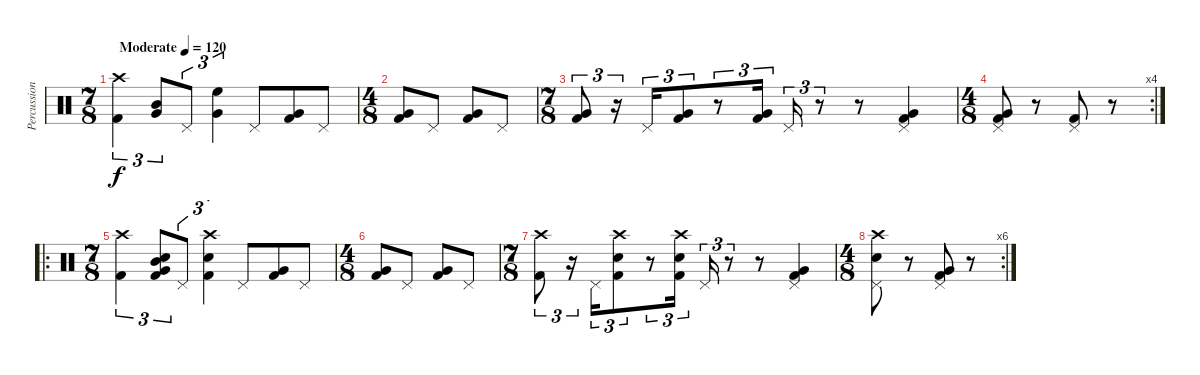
\track ("Percussion" "Percussion") {instrument percussion}
\staff {score}
\articulation defaults
\ts (7 8)
\tempo (120 "Moderate")
\clef neutral
\ks c
("Crash high (hit)" "Kick (hit) 2").4{tu (3 2) dy f} ("Mid Tom (hit)" "Very Low Tom (hit)").8{tu (3 2) beam merge} "Pedal Hi-Hat (hit)".8{tu (3 2)} ("High Floor Tom (hit)" "Very Low Tom (hit)").4{tu (3 2)} "Pedal Hi-Hat (hit)".8 ("Very Low Tom (hit)" "Kick (hit) 2").8 "Pedal Hi-Hat (hit)".8 |
\ts (4 8)
("Very Low Tom (hit)" "Kick (hit) 2").8 "Pedal Hi-Hat (hit)".8 ("Very Low Tom (hit)" "Kick (hit) 2").8 "Pedal Hi-Hat (hit)".8 |
\ts (7 8)
("Very Low Tom (hit)" "Kick (hit) 2").8{tu (3 2)} r.16{tu (3 2)} "Pedal Hi-Hat (hit)".16{tu (3 2)} ("Very Low Tom (hit)" "Kick (hit) 2").8{tu (3 2) beam merge} r.8{tu (3 2)} ("Very Low Tom (hit)" "Kick (hit) 2").16{tu (3 2)} "Pedal Hi-Hat (hit)".16{tu (3 2)} r.8{tu (3 2)} r.8 ("Very Low Tom (hit)" "Pedal Hi-Hat (hit)" "Kick (hit) 2").4 |
\rc 4
\ts (4 8)
("Very Low Tom (hit)" "Pedal Hi-Hat (hit)" "Kick (hit) 2").8 r.8 ("Pedal Hi-Hat (hit)" "Kick (hit) 2").8 r.8 |
\ro
\ts (7 8)
("Crash high (hit)" "Kick (hit) 2").4{tu (3 2)} ("Electric Snare (hit)" "Mid Tom (hit)" "Very Low Tom (hit)" "Kick (hit) 2").8{tu (3 2) beam merge} "Pedal Hi-Hat (hit)".8{tu (3 2)} ("Crash high (hit)" "Electric Snare (hit)" "Kick (hit) 2").4{tu (3 2)} "Pedal Hi-Hat (hit)".8 ("Very Low Tom (hit)" "Kick (hit) 2").8 "Pedal Hi-Hat (hit)".8 |
\ts (4 8)
("Very Low Tom (hit)" "Kick (hit) 2").8 "Pedal Hi-Hat (hit)".8 ("Very Low Tom (hit)" "Kick (hit) 2").8 "Pedal Hi-Hat (hit)".8 |
\ts (7 8)
("Crash high (hit)" "Kick (hit) 2").8{tu (3 2)} r.16{tu (3 2)} "Pedal Hi-Hat (hit)".16{tu (3 2)} ("Crash high (hit)" "Electric Snare (hit)" "Kick (hit) 2").8{tu (3 2) beam merge} r.8{tu (3 2)} ("Crash high (hit)" "Electric Snare (hit)" "Kick (hit) 2").16{tu (3 2)} "Pedal Hi-Hat (hit)".16{tu (3 2)} r.8{tu (3 2)} r.8 ("Very Low Tom (hit)" "Pedal Hi-Hat (hit)" "Kick (hit) 2").4 |
\rc 6
\ts (4 8)
("Crash high (hit)" "Snare (hit) 2" "Pedal Hi-Hat (hit)").8 r.8 ("Very Low Tom (hit)" "Pedal Hi-Hat (hit)" "Kick (hit) 2").8 r.8
